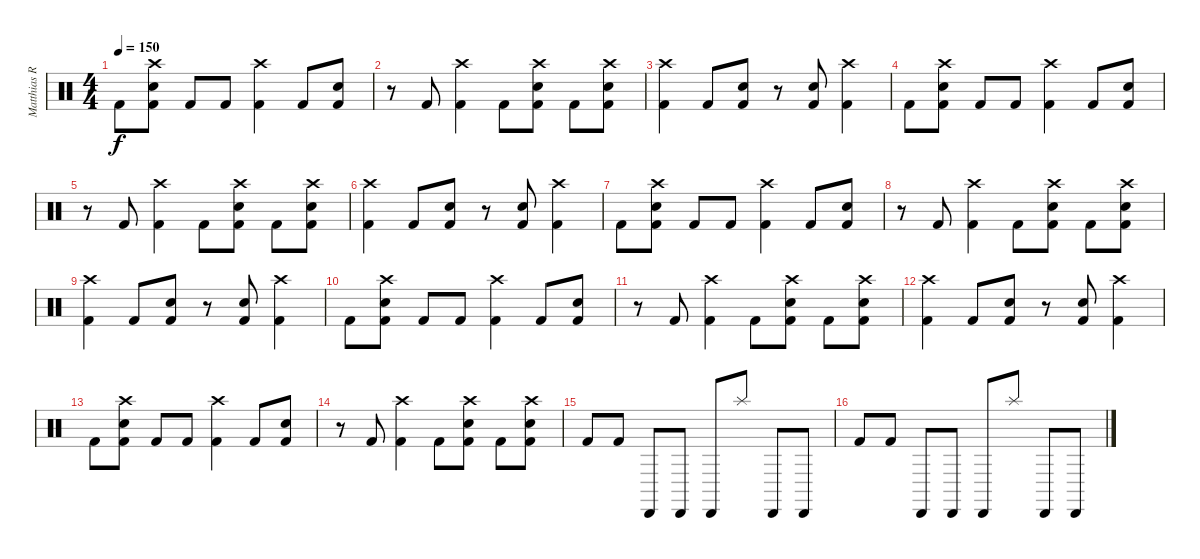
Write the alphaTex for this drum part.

\track ("Matthias Rodig" "Matthias R") {instrument percussion}
\staff {score}
\articulation defaults
\ts (4 4)
\tempo 150
\clef neutral
\ks c "Kick (hit) 2".8{dy f}
("Kick (hit) 2" "Snare (hit) 2" "Crash high (hit)").8 "Kick (hit) 2".8 "Kick (hit) 2".8 ("Kick (hit) 2" "Crash high (hit)").4 "Kick (hit) 2".8 ("Kick (hit) 2" "Snare (hit) 2").8 |
r.8 "Kick (hit) 2".8 ("Kick (hit) 2" "Crash high (hit)").4 "Kick (hit) 2".8 ("Kick (hit) 2" "Snare (hit) 2" "Crash high (hit)").8 "Kick (hit) 2".8 ("Kick (hit) 2" "Snare (hit) 2" "Crash high (hit)").8 |
("Kick (hit) 2" "Crash high (hit)").4 "Kick (hit) 2".8 ("Kick (hit) 2" "Snare (hit) 2").8 r.8 ("Kick (hit) 2" "Snare (hit) 2").8 ("Kick (hit) 2" "Crash high (hit)").4 |
"Kick (hit) 2".8 ("Kick (hit) 2" "Snare (hit) 2" "Crash high (hit)").8 "Kick (hit) 2".8 "Kick (hit) 2".8 ("Kick (hit) 2" "Crash high (hit)").4 "Kick (hit) 2".8 ("Kick (hit) 2" "Snare (hit) 2").8 |
r.8 "Kick (hit) 2".8 ("Kick (hit) 2" "Crash high (hit)").4 "Kick (hit) 2".8 ("Kick (hit) 2" "Snare (hit) 2" "Crash high (hit)").8 "Kick (hit) 2".8 ("Kick (hit) 2" "Snare (hit) 2" "Crash high (hit)").8 |
("Kick (hit) 2" "Crash high (hit)").4 "Kick (hit) 2".8 ("Kick (hit) 2" "Snare (hit) 2").8 r.8 ("Kick (hit) 2" "Snare (hit) 2").8 ("Kick (hit) 2" "Crash high (hit)").4 |
"Kick (hit) 2".8 ("Kick (hit) 2" "Snare (hit) 2" "Crash high (hit)").8 "Kick (hit) 2".8 "Kick (hit) 2".8 ("Kick (hit) 2" "Crash high (hit)").4 "Kick (hit) 2".8 ("Kick (hit) 2" "Snare (hit) 2").8 |
r.8 "Kick (hit) 2".8 ("Kick (hit) 2" "Crash high (hit)").4 "Kick (hit) 2".8 ("Kick (hit) 2" "Snare (hit) 2" "Crash high (hit)").8 "Kick (hit) 2".8 ("Kick (hit) 2" "Snare (hit) 2" "Crash high (hit)").8 |
("Kick (hit) 2" "Crash high (hit)").4 "Kick (hit) 2".8 ("Kick (hit) 2" "Snare (hit) 2").8 r.8 ("Kick (hit) 2" "Snare (hit) 2").8 ("Kick (hit) 2" "Crash high (hit)").4 |
"Kick (hit) 2".8 ("Kick (hit) 2" "Snare (hit) 2" "Crash high (hit)").8 "Kick (hit) 2".8 "Kick (hit) 2".8 ("Kick (hit) 2" "Crash high (hit)").4 "Kick (hit) 2".8 ("Kick (hit) 2" "Snare (hit) 2").8 |
r.8 "Kick (hit) 2".8 ("Kick (hit) 2" "Crash high (hit)").4 "Kick (hit) 2".8 ("Kick (hit) 2" "Snare (hit) 2" "Crash high (hit)").8 "Kick (hit) 2".8 ("Kick (hit) 2" "Snare (hit) 2" "Crash high (hit)").8 |
("Kick (hit) 2" "Crash high (hit)").4 "Kick (hit) 2".8 ("Kick (hit) 2" "Snare (hit) 2").8 r.8 ("Kick (hit) 2" "Snare (hit) 2").8 ("Kick (hit) 2" "Crash high (hit)").4 |
"Kick (hit) 2".8 ("Kick (hit) 2" "Snare (hit) 2" "Crash high (hit)").8 "Kick (hit) 2".8 "Kick (hit) 2".8 ("Kick (hit) 2" "Crash high (hit)").4 "Kick (hit) 2".8 ("Kick (hit) 2" "Snare (hit) 2").8 |
r.8 "Kick (hit) 2".8 ("Kick (hit) 2" "Crash high (hit)").4 "Kick (hit) 2".8 ("Kick (hit) 2" "Snare (hit) 2" "Crash high (hit)").8 "Kick (hit) 2".8 ("Kick (hit) 2" "Snare (hit) 2" "Crash high (hit)").8 |
"Kick (hit) 2".8 "Kick (hit) 2".8 "Cabasa (hit)".8 "Cabasa (hit)".8 "Cabasa (hit)".8 "Splash (hit)".8 "Cabasa (hit)".8 "Cabasa (hit)".8 |
"Kick (hit) 2".8 "Kick (hit) 2".8 "Cabasa (hit)".8 "Cabasa (hit)".8 "Cabasa (hit)".8 "Splash (hit)".8 "Cabasa (hit)".8 "Cabasa (hit)".8
